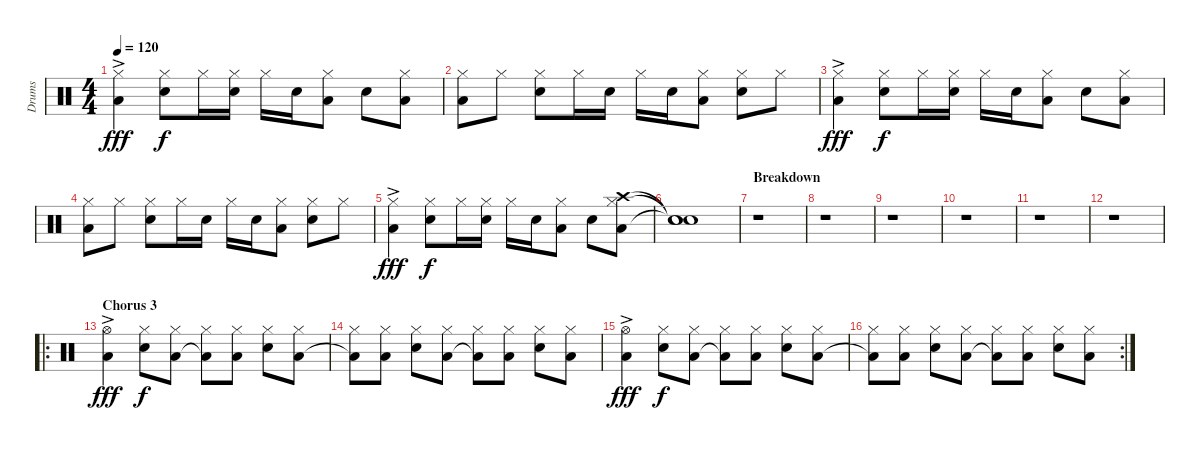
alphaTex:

\track ("Drums" "Drums") {instrument percussion}
\staff {score}
\articulation defaults
\ts (4 4)
\tempo 120
\clef neutral
\ks c
("Hi-Hat (closed)"{ac} "Low Floor Tom (hit)"{ac}).4{dy fff} ("Hi-Hat (closed)" "Snare (hit) 2").8{dy f} "Hi-Hat (closed)".16 ("Hi-Hat (closed)" "Snare (hit) 2").16 "Hi-Hat (closed)".16 "Snare (hit) 2".16 ("Hi-Hat (closed)" "Low Floor Tom (hit)").8 "Snare (hit) 2".8 ("Hi-Hat (closed)" "Low Floor Tom (hit)").8 |
("Hi-Hat (closed)" "Low Floor Tom (hit)").8 "Hi-Hat (closed)".8 ("Hi-Hat (closed)" "Snare (hit) 2").8 "Hi-Hat (closed)".16 "Snare (hit) 2".16 "Hi-Hat (closed)".16 "Snare (hit) 2".16 ("Hi-Hat (closed)" "Low Floor Tom (hit)").8 ("Hi-Hat (closed)" "Snare (hit) 2").8 "Hi-Hat (closed)".8 |
("Hi-Hat (closed)"{ac} "Low Floor Tom (hit)"{ac}).4{dy fff} ("Hi-Hat (closed)" "Snare (hit) 2").8{dy f} "Hi-Hat (closed)".16 ("Hi-Hat (closed)" "Snare (hit) 2").16 "Hi-Hat (closed)".16 "Snare (hit) 2".16 ("Hi-Hat (closed)" "Low Floor Tom (hit)").8 "Snare (hit) 2".8 ("Hi-Hat (closed)" "Low Floor Tom (hit)").8 |
("Hi-Hat (closed)" "Low Floor Tom (hit)").8 "Hi-Hat (closed)".8 ("Hi-Hat (closed)" "Snare (hit) 2").8 "Hi-Hat (closed)".16 "Snare (hit) 2".16 "Hi-Hat (closed)".16 "Snare (hit) 2".16 ("Hi-Hat (closed)" "Low Floor Tom (hit)").8 ("Hi-Hat (closed)" "Snare (hit) 2").8 "Hi-Hat (closed)".8 |
("Hi-Hat (closed)"{ac} "Low Floor Tom (hit)"{ac}).4{dy fff} ("Hi-Hat (closed)" "Snare (hit) 2").8{dy f} "Hi-Hat (closed)".16 ("Hi-Hat (closed)" "Snare (hit) 2").16 "Hi-Hat (closed)".16 "Snare (hit) 2".16 ("Hi-Hat (closed)" "Low Floor Tom (hit)").8 "Snare (hit) 2".8 ("Hi-Hat (closed)" "Crash high (hit)" "Low Floor Tom (hit)").8 |
("Snare (hit)"{t} "Snare (hit)"{t} "Snare (hit)"{t}).1 |
\section ("" "Breakdown")
r.1 |
r.1 |
r.1 |
r.1 |
r.1 |
r.1 |
\ro
\section ("" "Chorus 3")
("Hi-Hat (open)"{ac} "Low Floor Tom (hit)"{ac}).4{dy fff} ("Hi-Hat (closed)" "Snare (hit) 2").8{dy f} ("Hi-Hat (closed)" "Low Floor Tom (hit)").8 ("Hi-Hat (closed)" "Low Floor Tom (hit)"{t}).8 ("Hi-Hat (closed)" "Low Floor Tom (hit)").8 ("Hi-Hat (closed)" "Snare (hit) 2").8 ("Hi-Hat (closed)" "Low Floor Tom (hit)").8 |
("Hi-Hat (closed)" "Low Floor Tom (hit)"{t}).8 ("Hi-Hat (closed)" "Low Floor Tom (hit)").8 ("Hi-Hat (closed)" "Snare (hit) 2").8 ("Hi-Hat (closed)" "Low Floor Tom (hit)").8 ("Hi-Hat (closed)" "Low Floor Tom (hit)"{t}).8 ("Hi-Hat (closed)" "Low Floor Tom (hit)").8 ("Hi-Hat (closed)" "Snare (hit) 2").8 ("Hi-Hat (closed)" "Low Floor Tom (hit)").8 |
("Hi-Hat (open)"{ac} "Low Floor Tom (hit)"{ac}).4{dy fff} ("Hi-Hat (closed)" "Snare (hit) 2").8{dy f} ("Hi-Hat (closed)" "Low Floor Tom (hit)").8 ("Hi-Hat (closed)" "Low Floor Tom (hit)"{t}).8 ("Hi-Hat (closed)" "Low Floor Tom (hit)").8 ("Hi-Hat (closed)" "Snare (hit) 2").8 ("Hi-Hat (closed)" "Low Floor Tom (hit)").8 |
\rc 2
("Hi-Hat (closed)" "Low Floor Tom (hit)"{t}).8 ("Hi-Hat (closed)" "Low Floor Tom (hit)").8 ("Hi-Hat (closed)" "Snare (hit) 2").8 ("Hi-Hat (closed)" "Low Floor Tom (hit)").8 ("Hi-Hat (closed)" "Low Floor Tom (hit)"{t}).8 ("Hi-Hat (closed)" "Low Floor Tom (hit)").8 ("Hi-Hat (closed)" "Snare (hit) 2").8 ("Hi-Hat (closed)" "Low Floor Tom (hit)").8
